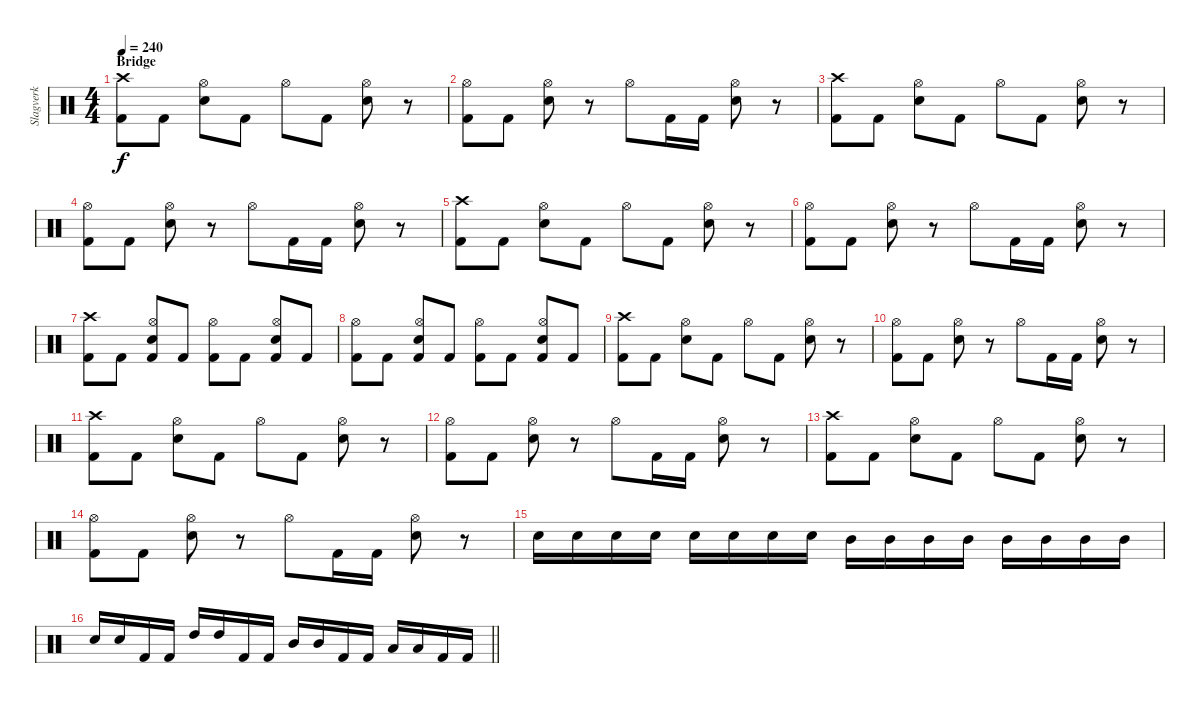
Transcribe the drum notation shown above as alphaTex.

\track ("Slagverk" "Slagverk") {instrument percussion}
\staff {score}
\articulation defaults
\ts (4 4)
\section ("" "Bridge")
\tempo 240
\clef neutral
\ks c
("Crash high (hit)" "Kick (hit) 2").8{dy f} "Kick (hit) 2".8 ("Hi-Hat (open)" "Electric Snare (hit)").8 "Kick (hit) 2".8 "Hi-Hat (open)".8 "Kick (hit) 2".8 ("Hi-Hat (open)" "Electric Snare (hit)").8 r.8 |
("Hi-Hat (open)" "Kick (hit) 2").8 "Kick (hit) 2".8 ("Hi-Hat (open)" "Electric Snare (hit)").8 r.8 "Hi-Hat (open)".8 "Kick (hit) 2".16 "Kick (hit) 2".16 ("Hi-Hat (open)" "Electric Snare (hit)").8 r.8 |
("Crash high (hit)" "Kick (hit) 2").8 "Kick (hit) 2".8 ("Hi-Hat (open)" "Electric Snare (hit)").8 "Kick (hit) 2".8 "Hi-Hat (open)".8 "Kick (hit) 2".8 ("Hi-Hat (open)" "Electric Snare (hit)").8 r.8 |
("Hi-Hat (open)" "Kick (hit) 2").8 "Kick (hit) 2".8 ("Hi-Hat (open)" "Electric Snare (hit)").8 r.8 "Hi-Hat (open)".8 "Kick (hit) 2".16 "Kick (hit) 2".16 ("Hi-Hat (open)" "Electric Snare (hit)").8 r.8 |
("Crash high (hit)" "Kick (hit) 2").8 "Kick (hit) 2".8 ("Hi-Hat (open)" "Electric Snare (hit)").8 "Kick (hit) 2".8 "Hi-Hat (open)".8 "Kick (hit) 2".8 ("Hi-Hat (open)" "Electric Snare (hit)").8 r.8 |
("Hi-Hat (open)" "Kick (hit) 2").8 "Kick (hit) 2".8 ("Hi-Hat (open)" "Electric Snare (hit)").8 r.8 "Hi-Hat (open)".8 "Kick (hit) 2".16 "Kick (hit) 2".16 ("Hi-Hat (open)" "Electric Snare (hit)").8 r.8 |
("Crash high (hit)" "Kick (hit) 2").8 "Kick (hit) 2".8 ("Hi-Hat (open)" "Electric Snare (hit)" "Kick (hit) 2").8 "Kick (hit) 2".8 ("Hi-Hat (open)" "Kick (hit) 2").8 "Kick (hit) 2".8 ("Hi-Hat (open)" "Electric Snare (hit)" "Kick (hit) 2").8 "Kick (hit) 2".8 |
("Hi-Hat (open)" "Kick (hit) 2").8 "Kick (hit) 2".8 ("Hi-Hat (open)" "Electric Snare (hit)" "Kick (hit) 2").8 "Kick (hit) 2".8 ("Hi-Hat (open)" "Kick (hit) 2").8 "Kick (hit) 2".8 ("Hi-Hat (open)" "Electric Snare (hit)" "Kick (hit) 2").8 "Kick (hit) 2".8 |
("Crash high (hit)" "Kick (hit) 2").8 "Kick (hit) 2".8 ("Hi-Hat (open)" "Electric Snare (hit)").8 "Kick (hit) 2".8 "Hi-Hat (open)".8 "Kick (hit) 2".8 ("Hi-Hat (open)" "Electric Snare (hit)").8 r.8 |
("Hi-Hat (open)" "Kick (hit) 2").8 "Kick (hit) 2".8 ("Hi-Hat (open)" "Electric Snare (hit)").8 r.8 "Hi-Hat (open)".8 "Kick (hit) 2".16 "Kick (hit) 2".16 ("Hi-Hat (open)" "Electric Snare (hit)").8 r.8 |
("Crash high (hit)" "Kick (hit) 2").8 "Kick (hit) 2".8 ("Hi-Hat (open)" "Electric Snare (hit)").8 "Kick (hit) 2".8 "Hi-Hat (open)".8 "Kick (hit) 2".8 ("Hi-Hat (open)" "Electric Snare (hit)").8 r.8 |
("Hi-Hat (open)" "Kick (hit) 2").8 "Kick (hit) 2".8 ("Hi-Hat (open)" "Electric Snare (hit)").8 r.8 "Hi-Hat (open)".8 "Kick (hit) 2".16 "Kick (hit) 2".16 ("Hi-Hat (open)" "Electric Snare (hit)").8 r.8 |
("Crash high (hit)" "Kick (hit) 2").8 "Kick (hit) 2".8 ("Hi-Hat (open)" "Electric Snare (hit)").8 "Kick (hit) 2".8 "Hi-Hat (open)".8 "Kick (hit) 2".8 ("Hi-Hat (open)" "Electric Snare (hit)").8 r.8 |
("Hi-Hat (open)" "Kick (hit) 2").8 "Kick (hit) 2".8 ("Hi-Hat (open)" "Electric Snare (hit)").8 r.8 "Hi-Hat (open)".8 "Kick (hit) 2".16 "Kick (hit) 2".16 ("Hi-Hat (open)" "Electric Snare (hit)").8 r.8 |
"Electric Snare (hit)".16 "Electric Snare (hit)".16 "Electric Snare (hit)".16 "Electric Snare (hit)".16 "Electric Snare (hit)".16 "Electric Snare (hit)".16 "Electric Snare (hit)".16 "Electric Snare (hit)".16 "Mid Tom (hit)".16 "Mid Tom (hit)".16 "Mid Tom (hit)".16 "Mid Tom (hit)".16 "Mid Tom (hit)".16 "Mid Tom (hit)".16 "Mid Tom (hit)".16 "Mid Tom (hit)".16 |
\barLineRight lightlight "Electric Snare (hit)".16 "Electric Snare (hit)".16 "Kick (hit) 2".16 "Kick (hit) 2".16 "High Tom (hit)".16 "High Tom (hit)".16 "Kick (hit) 2".16 "Kick (hit) 2".16 "Mid Tom (hit)".16 "Mid Tom (hit)".16 "Kick (hit) 2".16 "Kick (hit) 2".16 "Low Tom (hit)".16 "Low Tom (hit)".16 "Kick (hit) 2".16 "Kick (hit) 2".16
